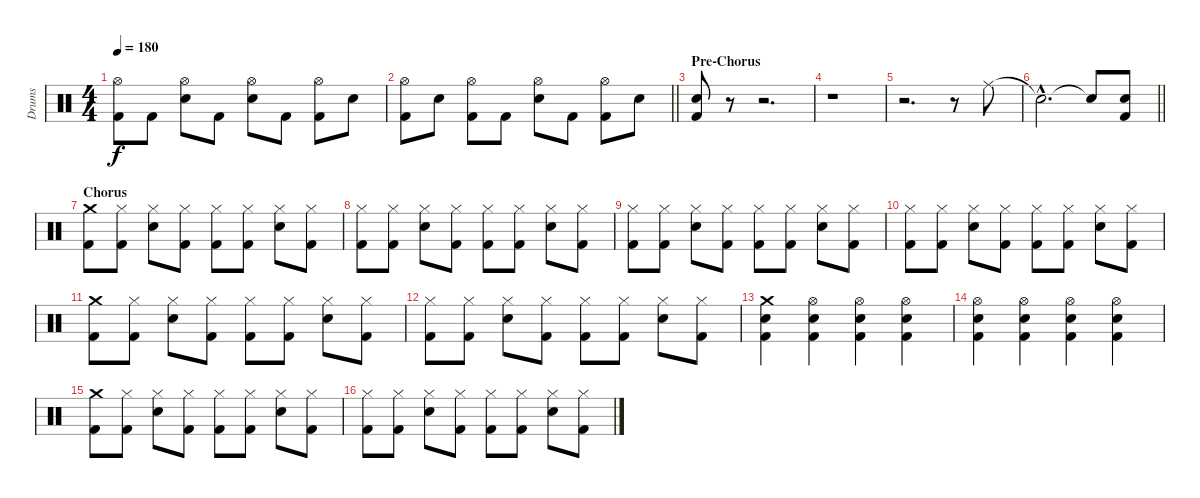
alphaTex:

\track ("Drums" "Drums") {instrument percussion}
\staff {score}
\articulation defaults
\ts (4 4)
\tempo 180
\clef neutral
\ks c
("Hi-Hat (open)" "Kick (hit) 2").8{dy f} "Kick (hit) 2".8 ("Hi-Hat (open)" "Electric Snare (hit)").8 "Kick (hit) 2".8 ("Hi-Hat (open)" "Electric Snare (hit)").8 "Kick (hit) 2".8 ("Hi-Hat (open)" "Kick (hit) 2").8 "Electric Snare (hit)".8 |
\barLineRight lightlight
("Hi-Hat (open)" "Kick (hit) 2").8 "Electric Snare (hit)".8 ("Hi-Hat (open)" "Kick (hit) 2").8 "Kick (hit) 2".8 ("Hi-Hat (open)" "Electric Snare (hit)").8 "Kick (hit) 2".8 ("Hi-Hat (open)" "Kick (hit) 2").8 "Electric Snare (hit)".8 |
\section ("" "Pre-Chorus")
("Electric Snare (hit)" "Kick (hit) 2").8 r.8 r.2{d} |
r.1 |
r.2{d} r.8 "Ride (middle)".8 |
\barLineRight lightlight "Snare (hit)"{hac t}.2{d} "Snare (hit)"{t}.8
("Electric Snare (hit)" "Kick (hit) 2").8 |
\section ("" "Chorus")
("Crash medium (hit)" "Kick (hit) 2").8 ("Hi-Hat (closed)" "Kick (hit) 2").8 ("Hi-Hat (closed)" "Electric Snare (hit)").8 ("Hi-Hat (closed)" "Kick (hit) 2").8 ("Hi-Hat (closed)" "Kick (hit) 2").8 ("Hi-Hat (closed)" "Kick (hit) 2").8 ("Hi-Hat (closed)" "Electric Snare (hit)").8 ("Hi-Hat (closed)" "Kick (hit) 2").8 |
("Hi-Hat (closed)" "Kick (hit) 2").8 ("Hi-Hat (closed)" "Kick (hit) 2").8 ("Hi-Hat (closed)" "Electric Snare (hit)").8 ("Hi-Hat (closed)" "Kick (hit) 2").8 ("Hi-Hat (closed)" "Kick (hit) 2").8 ("Hi-Hat (closed)" "Kick (hit) 2").8 ("Hi-Hat (closed)" "Electric Snare (hit)").8 ("Hi-Hat (closed)" "Kick (hit) 2").8 |
("Hi-Hat (closed)" "Kick (hit) 2").8 ("Hi-Hat (closed)" "Kick (hit) 2").8 ("Hi-Hat (closed)" "Electric Snare (hit)").8 ("Hi-Hat (closed)" "Kick (hit) 2").8 ("Hi-Hat (closed)" "Kick (hit) 2").8 ("Hi-Hat (closed)" "Kick (hit) 2").8 ("Hi-Hat (closed)" "Electric Snare (hit)").8 ("Hi-Hat (closed)" "Kick (hit) 2").8 |
("Hi-Hat (closed)" "Kick (hit) 2").8 ("Hi-Hat (closed)" "Kick (hit) 2").8 ("Hi-Hat (closed)" "Electric Snare (hit)").8 ("Hi-Hat (closed)" "Kick (hit) 2").8 ("Hi-Hat (closed)" "Kick (hit) 2").8 ("Hi-Hat (closed)" "Kick (hit) 2").8 ("Hi-Hat (closed)" "Electric Snare (hit)").8 ("Hi-Hat (closed)" "Kick (hit) 2").8 |
("Crash medium (hit)" "Kick (hit) 2").8 ("Hi-Hat (closed)" "Kick (hit) 2").8 ("Hi-Hat (closed)" "Electric Snare (hit)").8 ("Hi-Hat (closed)" "Kick (hit) 2").8 ("Hi-Hat (closed)" "Kick (hit) 2").8 ("Hi-Hat (closed)" "Kick (hit) 2").8 ("Hi-Hat (closed)" "Electric Snare (hit)").8 ("Hi-Hat (closed)" "Kick (hit) 2").8 |
("Hi-Hat (closed)" "Kick (hit) 2").8 ("Hi-Hat (closed)" "Kick (hit) 2").8 ("Hi-Hat (closed)" "Electric Snare (hit)").8 ("Hi-Hat (closed)" "Kick (hit) 2").8 ("Hi-Hat (closed)" "Kick (hit) 2").8 ("Hi-Hat (closed)" "Kick (hit) 2").8 ("Hi-Hat (closed)" "Electric Snare (hit)").8 ("Hi-Hat (closed)" "Kick (hit) 2").8 |
("Crash medium (hit)" "Electric Snare (hit)" "Kick (hit) 2").4 ("Hi-Hat (open)" "Electric Snare (hit)" "Kick (hit) 2").4 ("Hi-Hat (open)" "Electric Snare (hit)" "Kick (hit) 2").4 ("Hi-Hat (open)" "Electric Snare (hit)" "Kick (hit) 2").4 |
("Hi-Hat (open)" "Electric Snare (hit)" "Kick (hit) 2").4 ("Hi-Hat (open)" "Electric Snare (hit)" "Kick (hit) 2").4 ("Hi-Hat (open)" "Electric Snare (hit)" "Kick (hit) 2").4 ("Hi-Hat (open)" "Electric Snare (hit)" "Kick (hit) 2").4 |
("Crash medium (hit)" "Kick (hit) 2").8 ("Hi-Hat (closed)" "Kick (hit) 2").8 ("Hi-Hat (closed)" "Electric Snare (hit)").8 ("Hi-Hat (closed)" "Kick (hit) 2").8 ("Hi-Hat (closed)" "Kick (hit) 2").8 ("Hi-Hat (closed)" "Kick (hit) 2").8 ("Hi-Hat (closed)" "Electric Snare (hit)").8 ("Hi-Hat (closed)" "Kick (hit) 2").8 |
("Hi-Hat (closed)" "Kick (hit) 2").8 ("Hi-Hat (closed)" "Kick (hit) 2").8 ("Hi-Hat (closed)" "Electric Snare (hit)").8 ("Hi-Hat (closed)" "Kick (hit) 2").8 ("Hi-Hat (closed)" "Kick (hit) 2").8 ("Hi-Hat (closed)" "Kick (hit) 2").8 ("Hi-Hat (closed)" "Electric Snare (hit)").8 ("Hi-Hat (closed)" "Kick (hit) 2").8
